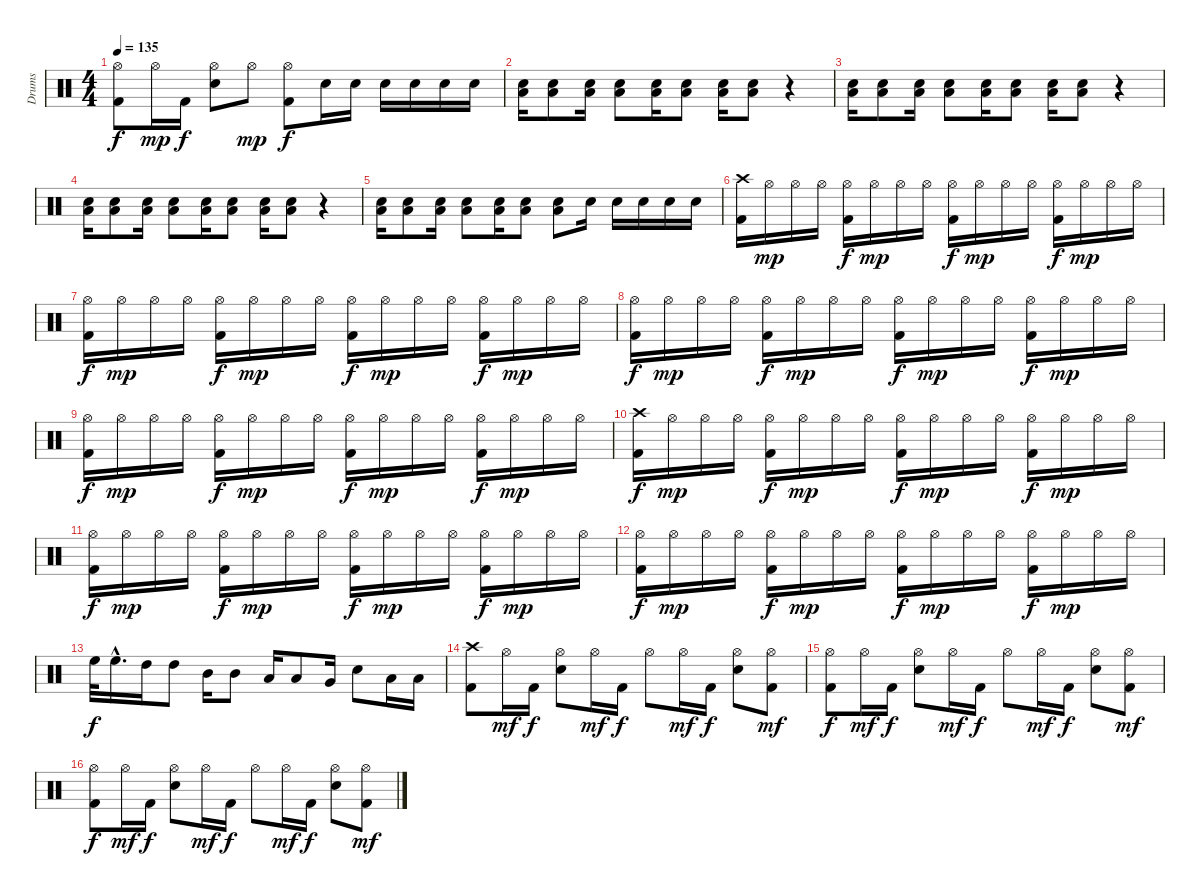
\track ("Drums" "Drums") {instrument percussion}
\staff {score}
\articulation defaults
\ts (4 4)
\tempo 135
\clef neutral
\ks c
("Hi-Hat (open)" "Kick (hit) 2").8{dy f} "Hi-Hat (open)".16{dy mp} "Kick (hit) 2".16{dy f} ("Hi-Hat (open)" "Electric Snare (hit)").8 "Hi-Hat (open)".8{dy mp} ("Hi-Hat (open)" "Kick (hit) 2").8{dy f} "Electric Snare (hit)".16 "Electric Snare (hit)".16 "Electric Snare (hit)".16 "Electric Snare (hit)".16 "Electric Snare (hit)".16 "Electric Snare (hit)".16 |
("Electric Snare (hit)" "Low Floor Tom (hit)").16 ("Electric Snare (hit)" "Low Floor Tom (hit)").8 ("Electric Snare (hit)" "Low Floor Tom (hit)").16 ("Electric Snare (hit)" "Low Floor Tom (hit)").8 ("Electric Snare (hit)" "Low Floor Tom (hit)").16 ("Electric Snare (hit)" "Low Floor Tom (hit)").8 ("Electric Snare (hit)" "Low Floor Tom (hit)").16 ("Electric Snare (hit)" "Low Floor Tom (hit)").8 r.4 |
("Electric Snare (hit)" "Low Floor Tom (hit)").16 ("Electric Snare (hit)" "Low Floor Tom (hit)").8 ("Electric Snare (hit)" "Low Floor Tom (hit)").16 ("Electric Snare (hit)" "Low Floor Tom (hit)").8 ("Electric Snare (hit)" "Low Floor Tom (hit)").16 ("Electric Snare (hit)" "Low Floor Tom (hit)").8 ("Electric Snare (hit)" "Low Floor Tom (hit)").16 ("Electric Snare (hit)" "Low Floor Tom (hit)").8 r.4 |
("Electric Snare (hit)" "Low Floor Tom (hit)").16 ("Electric Snare (hit)" "Low Floor Tom (hit)").8 ("Electric Snare (hit)" "Low Floor Tom (hit)").16 ("Electric Snare (hit)" "Low Floor Tom (hit)").8 ("Electric Snare (hit)" "Low Floor Tom (hit)").16 ("Electric Snare (hit)" "Low Floor Tom (hit)").8 ("Electric Snare (hit)" "Low Floor Tom (hit)").16 ("Electric Snare (hit)" "Low Floor Tom (hit)").8 r.4 |
("Electric Snare (hit)" "Low Floor Tom (hit)").16 ("Electric Snare (hit)" "Low Floor Tom (hit)").8 ("Electric Snare (hit)" "Low Floor Tom (hit)").16 ("Electric Snare (hit)" "Low Floor Tom (hit)").8 ("Electric Snare (hit)" "Low Floor Tom (hit)").16 ("Electric Snare (hit)" "Low Floor Tom (hit)").8 ("Electric Snare (hit)" "Low Floor Tom (hit)").8 "Electric Snare (hit)".16 "Electric Snare (hit)".16 "Electric Snare (hit)".16 "Electric Snare (hit)".16 "Electric Snare (hit)".16 |
("Crash high (hit)" "Kick (hit) 2").16 "Hi-Hat (open)".16{dy mp} "Hi-Hat (open)".16 "Hi-Hat (open)".16 ("Hi-Hat (open)" "Kick (hit) 2").16{dy f} "Hi-Hat (open)".16{dy mp} "Hi-Hat (open)".16 "Hi-Hat (open)".16 ("Hi-Hat (open)" "Kick (hit) 2").16{dy f} "Hi-Hat (open)".16{dy mp} "Hi-Hat (open)".16 "Hi-Hat (open)".16 ("Hi-Hat (open)" "Kick (hit) 2").16{dy f} "Hi-Hat (open)".16{dy mp} "Hi-Hat (open)".16 "Hi-Hat (open)".16 |
("Hi-Hat (open)" "Kick (hit) 2").16{dy f} "Hi-Hat (open)".16{dy mp} "Hi-Hat (open)".16 "Hi-Hat (open)".16 ("Hi-Hat (open)" "Kick (hit) 2").16{dy f} "Hi-Hat (open)".16{dy mp} "Hi-Hat (open)".16 "Hi-Hat (open)".16 ("Hi-Hat (open)" "Kick (hit) 2").16{dy f} "Hi-Hat (open)".16{dy mp} "Hi-Hat (open)".16 "Hi-Hat (open)".16 ("Hi-Hat (open)" "Kick (hit) 2").16{dy f} "Hi-Hat (open)".16{dy mp} "Hi-Hat (open)".16 "Hi-Hat (open)".16 |
("Hi-Hat (open)" "Kick (hit) 2").16{dy f} "Hi-Hat (open)".16{dy mp} "Hi-Hat (open)".16 "Hi-Hat (open)".16 ("Hi-Hat (open)" "Kick (hit) 2").16{dy f} "Hi-Hat (open)".16{dy mp} "Hi-Hat (open)".16 "Hi-Hat (open)".16 ("Hi-Hat (open)" "Kick (hit) 2").16{dy f} "Hi-Hat (open)".16{dy mp} "Hi-Hat (open)".16 "Hi-Hat (open)".16 ("Hi-Hat (open)" "Kick (hit) 2").16{dy f} "Hi-Hat (open)".16{dy mp} "Hi-Hat (open)".16 "Hi-Hat (open)".16 |
("Hi-Hat (open)" "Kick (hit) 2").16{dy f} "Hi-Hat (open)".16{dy mp} "Hi-Hat (open)".16 "Hi-Hat (open)".16 ("Hi-Hat (open)" "Kick (hit) 2").16{dy f} "Hi-Hat (open)".16{dy mp} "Hi-Hat (open)".16 "Hi-Hat (open)".16 ("Hi-Hat (open)" "Kick (hit) 2").16{dy f} "Hi-Hat (open)".16{dy mp} "Hi-Hat (open)".16 "Hi-Hat (open)".16 ("Hi-Hat (open)" "Kick (hit) 2").16{dy f} "Hi-Hat (open)".16{dy mp} "Hi-Hat (open)".16 "Hi-Hat (open)".16 |
("Crash high (hit)" "Kick (hit) 2").16{dy f} "Hi-Hat (open)".16{dy mp} "Hi-Hat (open)".16 "Hi-Hat (open)".16 ("Hi-Hat (open)" "Kick (hit) 2").16{dy f} "Hi-Hat (open)".16{dy mp} "Hi-Hat (open)".16 "Hi-Hat (open)".16 ("Hi-Hat (open)" "Kick (hit) 2").16{dy f} "Hi-Hat (open)".16{dy mp} "Hi-Hat (open)".16 "Hi-Hat (open)".16 ("Hi-Hat (open)" "Kick (hit) 2").16{dy f} "Hi-Hat (open)".16{dy mp} "Hi-Hat (open)".16 "Hi-Hat (open)".16 |
("Hi-Hat (open)" "Kick (hit) 2").16{dy f} "Hi-Hat (open)".16{dy mp} "Hi-Hat (open)".16 "Hi-Hat (open)".16 ("Hi-Hat (open)" "Kick (hit) 2").16{dy f} "Hi-Hat (open)".16{dy mp} "Hi-Hat (open)".16 "Hi-Hat (open)".16 ("Hi-Hat (open)" "Kick (hit) 2").16{dy f} "Hi-Hat (open)".16{dy mp} "Hi-Hat (open)".16 "Hi-Hat (open)".16 ("Hi-Hat (open)" "Kick (hit) 2").16{dy f} "Hi-Hat (open)".16{dy mp} "Hi-Hat (open)".16 "Hi-Hat (open)".16 |
("Hi-Hat (open)" "Kick (hit) 2").16{dy f} "Hi-Hat (open)".16{dy mp} "Hi-Hat (open)".16 "Hi-Hat (open)".16 ("Hi-Hat (open)" "Kick (hit) 2").16{dy f} "Hi-Hat (open)".16{dy mp} "Hi-Hat (open)".16 "Hi-Hat (open)".16 ("Hi-Hat (open)" "Kick (hit) 2").16{dy f} "Hi-Hat (open)".16{dy mp} "Hi-Hat (open)".16 "Hi-Hat (open)".16 ("Hi-Hat (open)" "Kick (hit) 2").16{dy f} "Hi-Hat (open)".16{dy mp} "Hi-Hat (open)".16 "Hi-Hat (open)".16 |
"High Floor Tom (hit)".32{dy f} "High Floor Tom (hit)"{hac}.16{d} "High Tom (hit)".16 "High Tom (hit)".8 "Mid Tom (hit)".16 "Mid Tom (hit)".8 "Low Tom (hit)".16 "Low Tom (hit)".8 "Very Low Tom (hit)".16 "Electric Snare (hit)".8 "Low Floor Tom (hit)".16 "Low Floor Tom (hit)".16 |
("Crash high (hit)" "Kick (hit) 2").8 "Hi-Hat (open)".16{dy mf} "Kick (hit) 2".16{dy f} ("Hi-Hat (open)" "Electric Snare (hit)").8 "Hi-Hat (open)".16{dy mf} "Kick (hit) 2".16{dy f} "Hi-Hat (open)".8 "Hi-Hat (open)".16{dy mf} "Kick (hit) 2".16{dy f} ("Hi-Hat (open)" "Electric Snare (hit)").8 ("Hi-Hat (open)" "Kick (hit) 2").8{dy mf} |
("Hi-Hat (open)" "Kick (hit) 2").8{dy f} "Hi-Hat (open)".16{dy mf} "Kick (hit) 2".16{dy f} ("Hi-Hat (open)" "Electric Snare (hit)").8 "Hi-Hat (open)".16{dy mf} "Kick (hit) 2".16{dy f} "Hi-Hat (open)".8 "Hi-Hat (open)".16{dy mf} "Kick (hit) 2".16{dy f} ("Hi-Hat (open)" "Electric Snare (hit)").8 ("Hi-Hat (open)" "Kick (hit) 2").8{dy mf} |
("Hi-Hat (open)" "Kick (hit) 2").8{dy f} "Hi-Hat (open)".16{dy mf} "Kick (hit) 2".16{dy f} ("Hi-Hat (open)" "Electric Snare (hit)").8 "Hi-Hat (open)".16{dy mf} "Kick (hit) 2".16{dy f} "Hi-Hat (open)".8 "Hi-Hat (open)".16{dy mf} "Kick (hit) 2".16{dy f} ("Hi-Hat (open)" "Electric Snare (hit)").8 ("Hi-Hat (open)" "Kick (hit) 2").8{dy mf}
